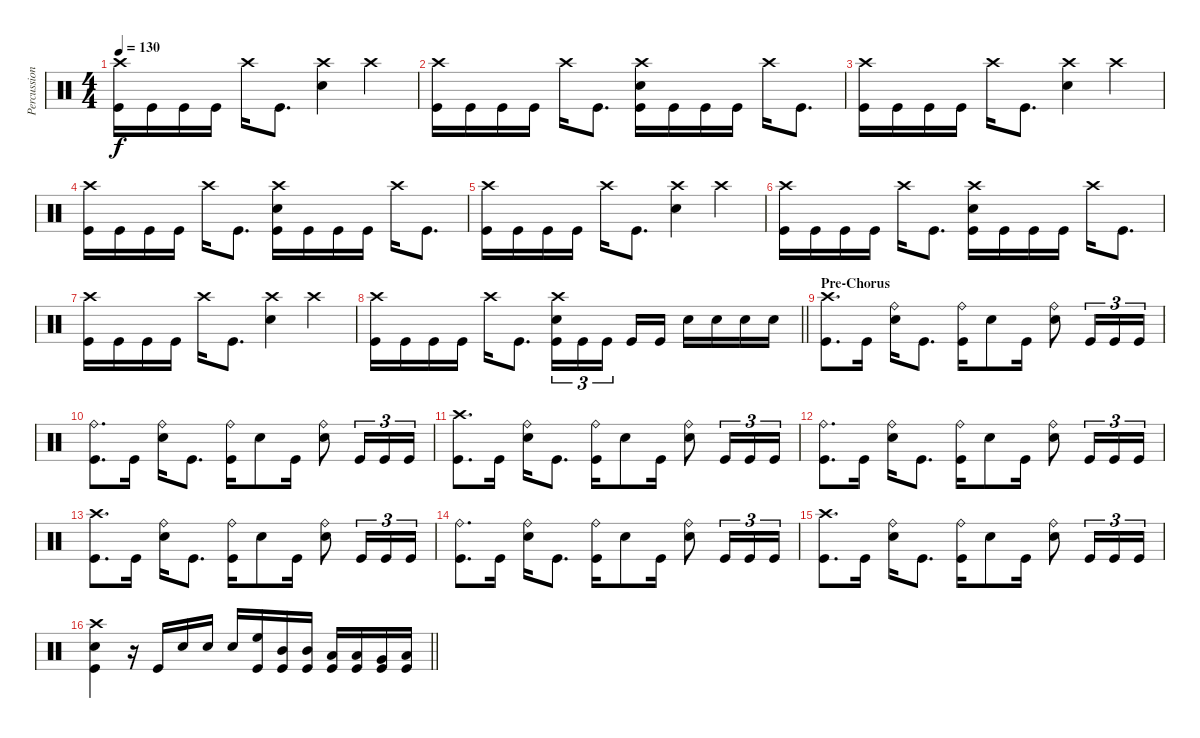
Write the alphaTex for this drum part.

\track ("Percussion" "Percussion") {instrument percussion}
\staff {score}
\articulation defaults
\ts (4 4)
\tempo 130
\clef neutral
\ks c
("Crash high (hit)" "Kick (hit)").16{dy f} "Kick (hit)".16 "Kick (hit)".16 "Kick (hit)".16 "Crash high (hit)".16 "Kick (hit)".8{d} ("Crash high (hit)" "Snare (hit) 2").4 "Crash high (hit)".4 |
("Crash high (hit)" "Kick (hit)").16 "Kick (hit)".16 "Kick (hit)".16 "Kick (hit)".16 "Crash high (hit)".16 "Kick (hit)".8{d} ("Crash high (hit)" "Snare (hit) 2" "Kick (hit)").16 "Kick (hit)".16 "Kick (hit)".16 "Kick (hit)".16 "Crash high (hit)".16 "Kick (hit)".8{d} |
("Crash high (hit)" "Kick (hit)").16 "Kick (hit)".16 "Kick (hit)".16 "Kick (hit)".16 "Crash high (hit)".16 "Kick (hit)".8{d} ("Crash high (hit)" "Snare (hit) 2").4 "Crash high (hit)".4 |
("Crash high (hit)" "Kick (hit)").16 "Kick (hit)".16 "Kick (hit)".16 "Kick (hit)".16 "Crash high (hit)".16 "Kick (hit)".8{d} ("Crash high (hit)" "Snare (hit) 2" "Kick (hit)").16 "Kick (hit)".16 "Kick (hit)".16 "Kick (hit)".16 "Crash high (hit)".16 "Kick (hit)".8{d} |
("Crash high (hit)" "Kick (hit)").16 "Kick (hit)".16 "Kick (hit)".16 "Kick (hit)".16 "Crash high (hit)".16 "Kick (hit)".8{d} ("Crash high (hit)" "Snare (hit) 2").4 "Crash high (hit)".4 |
("Crash high (hit)" "Kick (hit)").16 "Kick (hit)".16 "Kick (hit)".16 "Kick (hit)".16 "Crash high (hit)".16 "Kick (hit)".8{d} ("Crash high (hit)" "Snare (hit) 2" "Kick (hit)").16 "Kick (hit)".16 "Kick (hit)".16 "Kick (hit)".16 "Crash high (hit)".16 "Kick (hit)".8{d} |
("Crash high (hit)" "Kick (hit)").16 "Kick (hit)".16 "Kick (hit)".16 "Kick (hit)".16 "Crash high (hit)".16 "Kick (hit)".8{d} ("Crash high (hit)" "Snare (hit) 2").4 "Crash high (hit)".4 |
\barLineRight lightlight
("Crash high (hit)" "Kick (hit)").16 "Kick (hit)".16 "Kick (hit)".16 "Kick (hit)".16 "Crash high (hit)".16 "Kick (hit)".8{d} ("Crash high (hit)" "Snare (hit) 2" "Kick (hit)").16{tu (3 2)} "Kick (hit)".16{tu (3 2)} "Kick (hit)".16{tu (3 2) beam splitsecondary} "Kick (hit)".16 "Kick (hit)".16 "Snare (hit) 2".16 "Snare (hit) 2".16 "Snare (hit) 2".16 "Snare (hit) 2".16 |
\section ("" "Pre-Chorus")
("Crash high (hit)" "Kick (hit)").8{d} "Kick (hit)".16 ("Ride (bell)" "Snare (hit) 2").16 "Kick (hit)".8{d} ("Ride (bell)" "Kick (hit)").16 "Snare (hit) 2".8 "Kick (hit)".16 ("Ride (bell)" "Snare (hit) 2").8 "Kick (hit)".16{tu (3 2)} "Kick (hit)".16{tu (3 2)} "Kick (hit)".16{tu (3 2)} |
("Ride (bell)" "Kick (hit)").8{d} "Kick (hit)".16 ("Ride (bell)" "Snare (hit) 2").16 "Kick (hit)".8{d} ("Ride (bell)" "Kick (hit)").16 "Snare (hit) 2".8 "Kick (hit)".16 ("Ride (bell)" "Snare (hit) 2").8 "Kick (hit)".16{tu (3 2)} "Kick (hit)".16{tu (3 2)} "Kick (hit)".16{tu (3 2)} |
("Crash high (hit)" "Kick (hit)").8{d} "Kick (hit)".16 ("Ride (bell)" "Snare (hit) 2").16 "Kick (hit)".8{d} ("Ride (bell)" "Kick (hit)").16 "Snare (hit) 2".8 "Kick (hit)".16 ("Ride (bell)" "Snare (hit) 2").8 "Kick (hit)".16{tu (3 2)} "Kick (hit)".16{tu (3 2)} "Kick (hit)".16{tu (3 2)} |
("Ride (bell)" "Kick (hit)").8{d} "Kick (hit)".16 ("Ride (bell)" "Snare (hit) 2").16 "Kick (hit)".8{d} ("Ride (bell)" "Kick (hit)").16 "Snare (hit) 2".8 "Kick (hit)".16 ("Ride (bell)" "Snare (hit) 2").8 "Kick (hit)".16{tu (3 2)} "Kick (hit)".16{tu (3 2)} "Kick (hit)".16{tu (3 2)} |
("Crash high (hit)" "Kick (hit)").8{d} "Kick (hit)".16 ("Ride (bell)" "Snare (hit) 2").16 "Kick (hit)".8{d} ("Ride (bell)" "Kick (hit)").16 "Snare (hit) 2".8 "Kick (hit)".16 ("Ride (bell)" "Snare (hit) 2").8 "Kick (hit)".16{tu (3 2)} "Kick (hit)".16{tu (3 2)} "Kick (hit)".16{tu (3 2)} |
("Ride (bell)" "Kick (hit)").8{d} "Kick (hit)".16 ("Ride (bell)" "Snare (hit) 2").16 "Kick (hit)".8{d} ("Ride (bell)" "Kick (hit)").16 "Snare (hit) 2".8 "Kick (hit)".16 ("Ride (bell)" "Snare (hit) 2").8 "Kick (hit)".16{tu (3 2)} "Kick (hit)".16{tu (3 2)} "Kick (hit)".16{tu (3 2)} |
("Crash high (hit)" "Kick (hit)").8{d} "Kick (hit)".16 ("Ride (bell)" "Snare (hit) 2").16 "Kick (hit)".8{d} ("Ride (bell)" "Kick (hit)").16 "Snare (hit) 2".8 "Kick (hit)".16 ("Ride (bell)" "Snare (hit) 2").8 "Kick (hit)".16{tu (3 2)} "Kick (hit)".16{tu (3 2)} "Kick (hit)".16{tu (3 2)} |
\barLineRight lightlight
("Crash high (hit)" "Snare (hit) 2" "Kick (hit)").4 r.16 "Kick (hit)".16 "Snare (hit) 2".16 "Snare (hit) 2".16 "Snare (hit) 2".16 ("High Floor Tom (hit)" "Kick (hit)").16 ("Mid Tom (hit)" "Kick (hit)").16 ("Mid Tom (hit)" "Kick (hit)").16 ("Low Tom (hit)" "Kick (hit)").16 ("Low Tom (hit)" "Kick (hit)").16 ("Very Low Tom (hit)" "Kick (hit)").16 ("Low Floor Tom (hit)" "Kick (hit)").16
